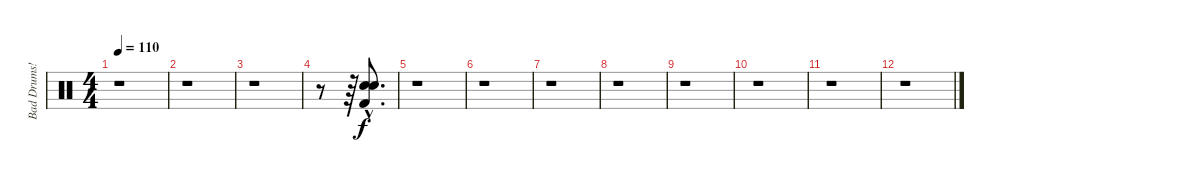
\track ("Bad Drums! BAD!" "Bad Drums!") {instrument percussion}
\staff {score}
\articulation defaults
\ts (4 4)
\tempo 110
\clef neutral
\ks c
r.1{dy f} |
r.1 |
r.1 |
r.8 r.64 ("Kick (hit) 2"{hac} "Electric Snare (hit)"{hac} "Snare (hit) 2"{hac}).8{d} |
r.1 |
r.1 |
r.1 |
r.1 |
r.1 |
r.1 |
r.1 |
r.1
